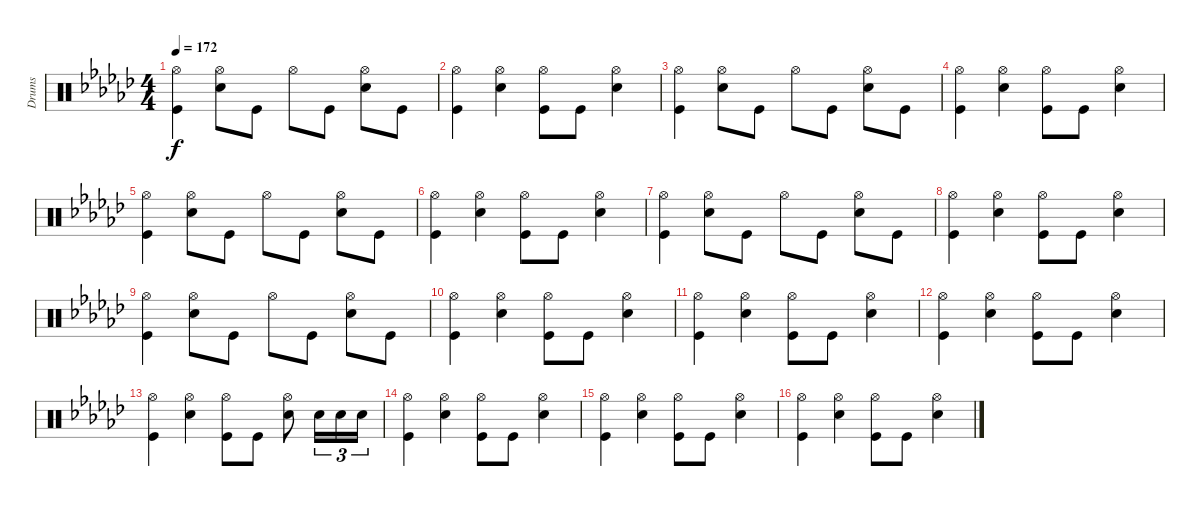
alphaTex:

\track ("Drums" "Drums") {instrument percussion}
\staff {score}
\articulation defaults
\ts (4 4)
\tempo 172
\clef neutral
\ks ebminor
("Hi-Hat (open)" "Kick (hit)").4{dy f} ("Hi-Hat (open)" "Snare (hit) 2").8 "Kick (hit)".8 "Hi-Hat (open)".8 "Kick (hit)".8 ("Hi-Hat (open)" "Snare (hit) 2").8 "Kick (hit)".8 |
("Hi-Hat (open)" "Kick (hit)").4 ("Hi-Hat (open)" "Snare (hit) 2").4 ("Hi-Hat (open)" "Kick (hit)").8 "Kick (hit)".8 ("Hi-Hat (open)" "Snare (hit) 2").4 |
("Hi-Hat (open)" "Kick (hit)").4 ("Hi-Hat (open)" "Snare (hit) 2").8 "Kick (hit)".8 "Hi-Hat (open)".8 "Kick (hit)".8 ("Hi-Hat (open)" "Snare (hit) 2").8 "Kick (hit)".8 |
("Hi-Hat (open)" "Kick (hit)").4 ("Hi-Hat (open)" "Snare (hit) 2").4 ("Hi-Hat (open)" "Kick (hit)").8 "Kick (hit)".8 ("Hi-Hat (open)" "Snare (hit) 2").4 |
("Hi-Hat (open)" "Kick (hit)").4 ("Hi-Hat (open)" "Snare (hit) 2").8 "Kick (hit)".8 "Hi-Hat (open)".8 "Kick (hit)".8 ("Hi-Hat (open)" "Snare (hit) 2").8 "Kick (hit)".8 |
("Hi-Hat (open)" "Kick (hit)").4 ("Hi-Hat (open)" "Snare (hit) 2").4 ("Hi-Hat (open)" "Kick (hit)").8 "Kick (hit)".8 ("Hi-Hat (open)" "Snare (hit) 2").4 |
("Hi-Hat (open)" "Kick (hit)").4 ("Hi-Hat (open)" "Snare (hit) 2").8 "Kick (hit)".8 "Hi-Hat (open)".8 "Kick (hit)".8 ("Hi-Hat (open)" "Snare (hit) 2").8 "Kick (hit)".8 |
("Hi-Hat (open)" "Kick (hit)").4 ("Hi-Hat (open)" "Snare (hit) 2").4 ("Hi-Hat (open)" "Kick (hit)").8 "Kick (hit)".8 ("Hi-Hat (open)" "Snare (hit) 2").4 |
("Hi-Hat (open)" "Kick (hit)").4 ("Hi-Hat (open)" "Snare (hit) 2").8 "Kick (hit)".8 "Hi-Hat (open)".8 "Kick (hit)".8 ("Hi-Hat (open)" "Snare (hit) 2").8 "Kick (hit)".8 |
("Hi-Hat (open)" "Kick (hit)").4 ("Hi-Hat (open)" "Snare (hit) 2").4 ("Hi-Hat (open)" "Kick (hit)").8 "Kick (hit)".8 ("Hi-Hat (open)" "Snare (hit) 2").4 |
("Hi-Hat (open)" "Kick (hit)").4 ("Hi-Hat (open)" "Snare (hit) 2").4 ("Hi-Hat (open)" "Kick (hit)").8 "Kick (hit)".8 ("Hi-Hat (open)" "Snare (hit) 2").4 |
("Hi-Hat (open)" "Kick (hit)").4 ("Hi-Hat (open)" "Snare (hit) 2").4 ("Hi-Hat (open)" "Kick (hit)").8 "Kick (hit)".8 ("Hi-Hat (open)" "Snare (hit) 2").4 |
("Hi-Hat (open)" "Kick (hit)").4 ("Hi-Hat (open)" "Snare (hit) 2").4 ("Hi-Hat (open)" "Kick (hit)").8 "Kick (hit)".8 ("Hi-Hat (open)" "Snare (hit) 2").8 "Snare (hit) 2".16{tu (3 2)} "Snare (hit) 2".16{tu (3 2)} "Snare (hit) 2".16{tu (3 2)} |
("Hi-Hat (open)" "Kick (hit)").4 ("Hi-Hat (open)" "Snare (hit) 2").4 ("Hi-Hat (open)" "Kick (hit)").8 "Kick (hit)".8 ("Hi-Hat (open)" "Snare (hit) 2").4 |
("Hi-Hat (open)" "Kick (hit)").4 ("Hi-Hat (open)" "Snare (hit) 2").4 ("Hi-Hat (open)" "Kick (hit)").8 "Kick (hit)".8 ("Hi-Hat (open)" "Snare (hit) 2").4 |
("Hi-Hat (open)" "Kick (hit)").4 ("Hi-Hat (open)" "Snare (hit) 2").4 ("Hi-Hat (open)" "Kick (hit)").8 "Kick (hit)".8 ("Hi-Hat (open)" "Snare (hit) 2").4
